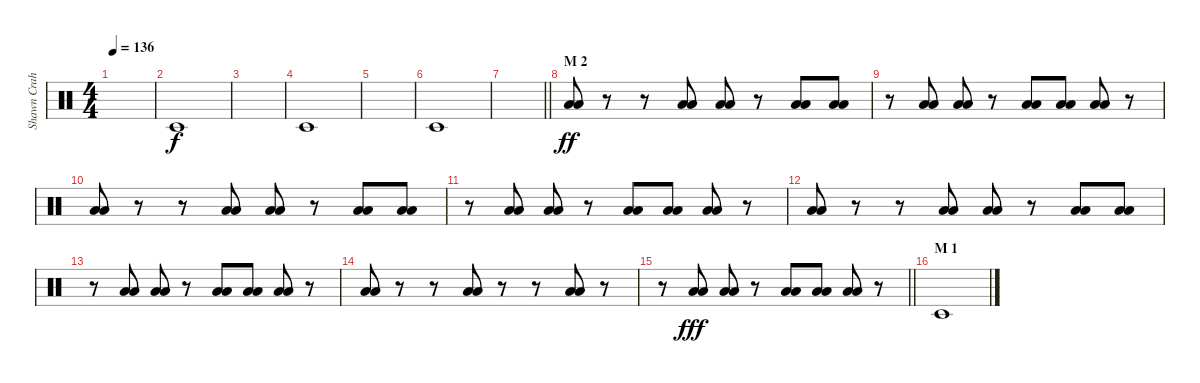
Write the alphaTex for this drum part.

\track ("Shawn Crahan" "Shawn Crah") {instrument percussion}
\staff {score}
\articulation defaults
\ts (4 4)
\tempo 136
\clef neutral
\ks c
|
"Timbale low (hit)".1 |
|
"Timbale low (hit)".1 |
|
"Timbale low (hit)".1 |
\barLineRight lightlight
|
\section ("" "M 2")
("Low Floor Tom (hit)" "Low Floor Tom (hit)").8{dy ff} r.8 r.8 ("Low Floor Tom (hit)" "Low Floor Tom (hit)").8 ("Low Floor Tom (hit)" "Low Floor Tom (hit)").8 r.8 ("Low Floor Tom (hit)" "Low Floor Tom (hit)").8 ("Low Floor Tom (hit)" "Low Floor Tom (hit)").8 |
r.8 ("Low Floor Tom (hit)" "Low Floor Tom (hit)").8 ("Low Floor Tom (hit)" "Low Floor Tom (hit)").8 r.8 ("Low Floor Tom (hit)" "Low Floor Tom (hit)").8 ("Low Floor Tom (hit)" "Low Floor Tom (hit)").8 ("Low Floor Tom (hit)" "Low Floor Tom (hit)").8 r.8 |
("Low Floor Tom (hit)" "Low Floor Tom (hit)").8 r.8 r.8 ("Low Floor Tom (hit)" "Low Floor Tom (hit)").8 ("Low Floor Tom (hit)" "Low Floor Tom (hit)").8 r.8 ("Low Floor Tom (hit)" "Low Floor Tom (hit)").8 ("Low Floor Tom (hit)" "Low Floor Tom (hit)").8 |
r.8 ("Low Floor Tom (hit)" "Low Floor Tom (hit)").8 ("Low Floor Tom (hit)" "Low Floor Tom (hit)").8 r.8 ("Low Floor Tom (hit)" "Low Floor Tom (hit)").8 ("Low Floor Tom (hit)" "Low Floor Tom (hit)").8 ("Low Floor Tom (hit)" "Low Floor Tom (hit)").8 r.8 |
("Low Floor Tom (hit)" "Low Floor Tom (hit)").8 r.8 r.8 ("Low Floor Tom (hit)" "Low Floor Tom (hit)").8 ("Low Floor Tom (hit)" "Low Floor Tom (hit)").8 r.8 ("Low Floor Tom (hit)" "Low Floor Tom (hit)").8 ("Low Floor Tom (hit)" "Low Floor Tom (hit)").8 |
r.8 ("Low Floor Tom (hit)" "Low Floor Tom (hit)").8 ("Low Floor Tom (hit)" "Low Floor Tom (hit)").8 r.8 ("Low Floor Tom (hit)" "Low Floor Tom (hit)").8 ("Low Floor Tom (hit)" "Low Floor Tom (hit)").8 ("Low Floor Tom (hit)" "Low Floor Tom (hit)").8 r.8 |
("Low Floor Tom (hit)" "Low Floor Tom (hit)").8 r.8 r.8 ("Low Floor Tom (hit)" "Low Floor Tom (hit)").8 r.8 r.8 ("Low Floor Tom (hit)" "Low Floor Tom (hit)").8 r.8 |
\barLineRight lightlight
r.8 ("Low Floor Tom (hit)" "Low Floor Tom (hit)").8{dy fff} ("Low Floor Tom (hit)" "Low Floor Tom (hit)").8 r.8 ("Low Floor Tom (hit)" "Low Floor Tom (hit)").8 ("Low Floor Tom (hit)" "Low Floor Tom (hit)").8 ("Low Floor Tom (hit)" "Low Floor Tom (hit)").8 r.8 |
\section ("" "M 1")
"Timbale low (hit)".1
